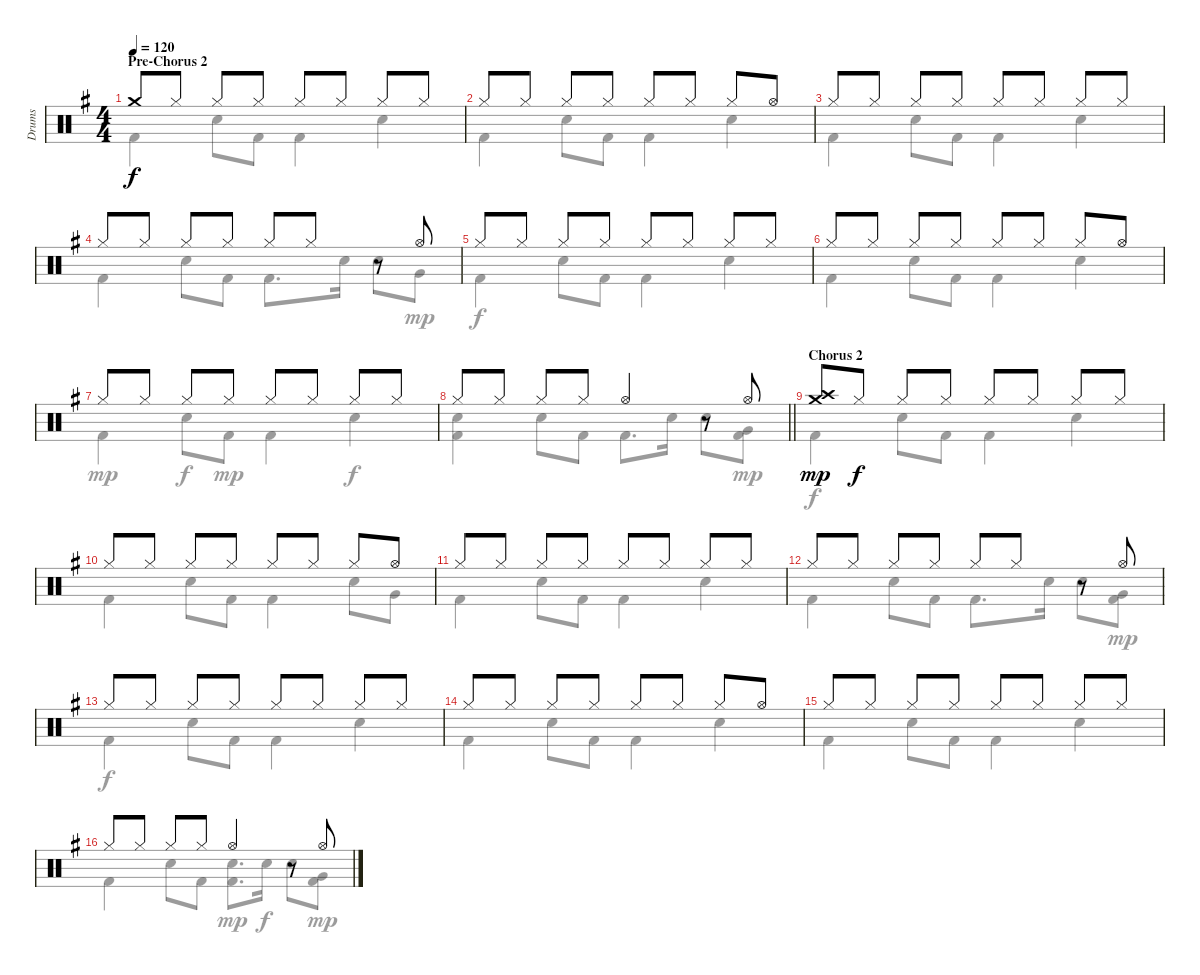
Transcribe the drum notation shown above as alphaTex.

\track ("Drums" "Drums") {instrument percussion}
\staff {score}
\articulation defaults
\voice
\ts (4 4)
\section ("" "Pre-Chorus 2")
\tempo 120
\clef neutral
\ks g "Crash medium (hit)".8{dy f} "Hi-Hat (closed)".8 "Hi-Hat (closed)".8 "Hi-Hat (closed)".8 "Hi-Hat (closed)".8 "Hi-Hat (closed)".8 "Hi-Hat (closed)".8 "Hi-Hat (closed)".8
|
"Hi-Hat (closed)".8 "Hi-Hat (closed)".8 "Hi-Hat (closed)".8 "Hi-Hat (closed)".8 "Hi-Hat (closed)".8 "Hi-Hat (closed)".8 "Hi-Hat (closed)".8 "Hi-Hat (open)".8 |
"Hi-Hat (closed)".8 "Hi-Hat (closed)".8 "Hi-Hat (closed)".8 "Hi-Hat (closed)".8 "Hi-Hat (closed)".8 "Hi-Hat (closed)".8 "Hi-Hat (closed)".8 "Hi-Hat (closed)".8 |
"Hi-Hat (closed)".8 "Hi-Hat (closed)".8 "Hi-Hat (closed)".8 "Hi-Hat (closed)".8 "Hi-Hat (closed)".8 "Hi-Hat (closed)".8 r.8 "Hi-Hat (open)".8 |
"Hi-Hat (closed)".8 "Hi-Hat (closed)".8 "Hi-Hat (closed)".8 "Hi-Hat (closed)".8 "Hi-Hat (closed)".8 "Hi-Hat (closed)".8 "Hi-Hat (closed)".8 "Hi-Hat (closed)".8 |
"Hi-Hat (closed)".8 "Hi-Hat (closed)".8 "Hi-Hat (closed)".8 "Hi-Hat (closed)".8 "Hi-Hat (closed)".8 "Hi-Hat (closed)".8 "Hi-Hat (closed)".8 "Hi-Hat (open)".8 |
"Hi-Hat (closed)".8 "Hi-Hat (closed)".8 "Hi-Hat (closed)".8 "Hi-Hat (closed)".8 "Hi-Hat (closed)".8 "Hi-Hat (closed)".8 "Hi-Hat (closed)".8 "Hi-Hat (closed)".8 |
\barLineRight lightlight "Hi-Hat (closed)".8 "Hi-Hat (closed)".8 "Hi-Hat (closed)".8 "Hi-Hat (closed)".8 "Hi-Hat (open)".4
r.8 "Hi-Hat (open)".8 |
\section ("" "Chorus 2")
("Crash medium (hit)" "Crash high (hit)").8{dy mp} "Hi-Hat (closed)".8{dy f} "Hi-Hat (closed)".8 "Hi-Hat (closed)".8 "Hi-Hat (closed)".8 "Hi-Hat (closed)".8 "Hi-Hat (closed)".8 "Hi-Hat (closed)".8 |
"Hi-Hat (closed)".8 "Hi-Hat (closed)".8 "Hi-Hat (closed)".8 "Hi-Hat (closed)".8 "Hi-Hat (closed)".8 "Hi-Hat (closed)".8 "Hi-Hat (closed)".8 "Hi-Hat (open)".8 |
"Hi-Hat (closed)".8 "Hi-Hat (closed)".8 "Hi-Hat (closed)".8 "Hi-Hat (closed)".8 "Hi-Hat (closed)".8 "Hi-Hat (closed)".8 "Hi-Hat (closed)".8 "Hi-Hat (closed)".8 |
"Hi-Hat (closed)".8 "Hi-Hat (closed)".8 "Hi-Hat (closed)".8 "Hi-Hat (closed)".8 "Hi-Hat (closed)".8 "Hi-Hat (closed)".8 r.8 "Hi-Hat (open)".8 |
"Hi-Hat (closed)".8 "Hi-Hat (closed)".8 "Hi-Hat (closed)".8 "Hi-Hat (closed)".8 "Hi-Hat (closed)".8 "Hi-Hat (closed)".8 "Hi-Hat (closed)".8 "Hi-Hat (closed)".8 |
"Hi-Hat (closed)".8 "Hi-Hat (closed)".8 "Hi-Hat (closed)".8 "Hi-Hat (closed)".8 "Hi-Hat (closed)".8 "Hi-Hat (closed)".8 "Hi-Hat (closed)".8 "Hi-Hat (open)".8 |
"Hi-Hat (closed)".8 "Hi-Hat (closed)".8 "Hi-Hat (closed)".8 "Hi-Hat (closed)".8 "Hi-Hat (closed)".8 "Hi-Hat (closed)".8 "Hi-Hat (closed)".8 "Hi-Hat (closed)".8 |
"Hi-Hat (closed)".8 "Hi-Hat (closed)".8 "Hi-Hat (closed)".8 "Hi-Hat (closed)".8 "Hi-Hat (open)".4 r.8 "Hi-Hat (open)".8
\voice
\clef neutral
\ottava regular
\simile none
\ks g "Kick (hit) 2".4{dy f} "Electric Snare (hit)".8 "Kick (hit) 2".8 "Kick (hit) 2".4 "Electric Snare (hit)".4
|
"Kick (hit) 2".4 "Electric Snare (hit)".8 "Kick (hit) 2".8 "Kick (hit) 2".4 "Electric Snare (hit)".4 |
"Kick (hit) 2".4 "Electric Snare (hit)".8 "Kick (hit) 2".8 "Kick (hit) 2".4 "Electric Snare (hit)".4 |
"Kick (hit) 2".4 "Electric Snare (hit)".8 "Kick (hit) 2".8 "Kick (hit) 2".8{d} "Electric Snare (hit)".16 "Electric Snare (hit)".8 "Very Low Tom (hit)".8{dy mp} |
"Kick (hit) 2".4{dy f} "Electric Snare (hit)".8 "Kick (hit) 2".8 "Kick (hit) 2".4 "Electric Snare (hit)".4 |
"Kick (hit) 2".4 "Electric Snare (hit)".8 "Kick (hit) 2".8 "Kick (hit) 2".4 "Electric Snare (hit)".4 |
"Kick (hit) 2".4{dy mp} "Electric Snare (hit)".8{dy f} "Kick (hit) 2".8{dy mp} "Kick (hit) 2".4 "Electric Snare (hit)".4{dy f} |
\barLineRight lightlight
("Electric Snare (hit)" "Kick (hit) 2").4 "Electric Snare (hit)".8 "Kick (hit) 2".8 "Kick (hit) 2".8{d} "Electric Snare (hit)".16 "Electric Snare (hit)".8 ("Very Low Tom (hit)" "Kick (hit) 2").8{dy mp} |
"Kick (hit) 2".4{dy f} "Electric Snare (hit)".8 "Kick (hit) 2".8 "Kick (hit) 2".4 "Electric Snare (hit)".4 |
"Kick (hit) 2".4 "Electric Snare (hit)".8 "Kick (hit) 2".8 "Kick (hit) 2".4 "Electric Snare (hit)".8 "Very Low Tom (hit)".8 |
"Kick (hit) 2".4 "Electric Snare (hit)".8 "Kick (hit) 2".8 "Kick (hit) 2".4 "Electric Snare (hit)".4 |
"Kick (hit) 2".4 "Electric Snare (hit)".8 "Kick (hit) 2".8 "Kick (hit) 2".8{d} "Electric Snare (hit)".16 "Electric Snare (hit)".8 ("Very Low Tom (hit)" "Kick (hit) 2").8{dy mp} |
"Kick (hit) 2".4{dy f} "Electric Snare (hit)".8 "Kick (hit) 2".8 "Kick (hit) 2".4 "Electric Snare (hit)".4 |
"Kick (hit) 2".4 "Electric Snare (hit)".8 "Kick (hit) 2".8 "Kick (hit) 2".4 "Electric Snare (hit)".4 |
"Kick (hit) 2".4 "Electric Snare (hit)".8 "Kick (hit) 2".8 "Kick (hit) 2".4 "Electric Snare (hit)".4 |
"Kick (hit) 2".4 "Electric Snare (hit)".8 "Kick (hit) 2".8 ("Electric Snare (hit)" "Kick (hit) 2").8{d dy mp} "Electric Snare (hit)".16{dy f} "Electric Snare (hit)".8 ("Very Low Tom (hit)" "Kick (hit) 2").8{dy mp}
